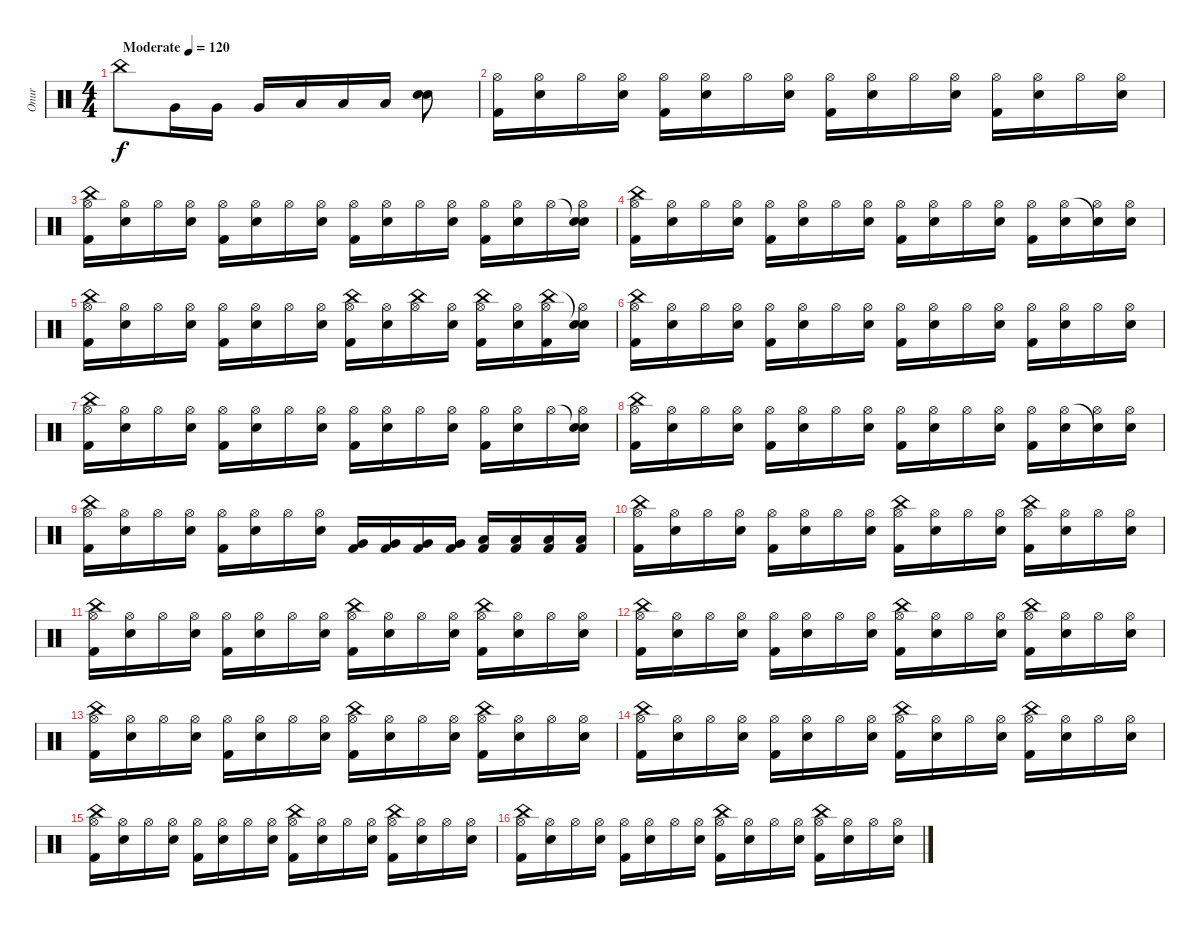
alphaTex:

\track ("Onur" "Onur") {instrument percussion}
\staff {score}
\articulation defaults
\ts (4 4)
\tempo (120 "Moderate")
\clef neutral
\ks c "China (hit)".8{dy f} "Very Low Tom (hit)".16 "Very Low Tom (hit)".16 "Very Low Tom (hit)".16 "Low Tom (hit)".16 "Low Tom (hit)".16 "Low Tom (hit)".16
("Snare (hit) 2" "Snare (hit)").8 |
("Hi-Hat (open)" "Kick (hit) 2").16 ("Hi-Hat (open)" "Snare (hit) 2").16 "Hi-Hat (open)".16 ("Hi-Hat (open)" "Snare (hit) 2").16 ("Hi-Hat (open)" "Kick (hit) 2").16 ("Hi-Hat (open)" "Snare (hit) 2").16 "Hi-Hat (open)".16 ("Hi-Hat (open)" "Snare (hit) 2").16 ("Hi-Hat (open)" "Kick (hit) 2").16 ("Hi-Hat (open)" "Snare (hit) 2").16 "Hi-Hat (open)".16 ("Hi-Hat (open)" "Snare (hit) 2").16 ("Hi-Hat (open)" "Kick (hit) 2").16 ("Hi-Hat (open)" "Snare (hit) 2").16 "Hi-Hat (open)".16 ("Hi-Hat (open)" "Snare (hit) 2").16 |
("China (hit)" "Hi-Hat (open)" "Kick (hit) 2").16 ("Hi-Hat (open)" "Snare (hit) 2").16 "Hi-Hat (open)".16 ("Hi-Hat (open)" "Snare (hit) 2").16 ("Hi-Hat (open)" "Kick (hit) 2").16 ("Hi-Hat (open)" "Snare (hit) 2").16 "Hi-Hat (open)".16 ("Hi-Hat (open)" "Snare (hit) 2").16 ("Hi-Hat (open)" "Kick (hit) 2").16 ("Hi-Hat (open)" "Snare (hit) 2").16 "Hi-Hat (open)".16 ("Hi-Hat (open)" "Snare (hit) 2").16 ("Hi-Hat (open)" "Kick (hit) 2").16 ("Hi-Hat (open)" "Snare (hit) 2").16 "Hi-Hat (open)".16 ("Snare (hit)"{t} "Hi-Hat (open)" "Snare (hit) 2").16 |
("China (hit)" "Hi-Hat (open)" "Kick (hit) 2").16 ("Hi-Hat (open)" "Snare (hit) 2").16 "Hi-Hat (open)".16 ("Hi-Hat (open)" "Snare (hit) 2").16 ("Hi-Hat (open)" "Kick (hit) 2").16 ("Hi-Hat (open)" "Snare (hit) 2").16 "Hi-Hat (open)".16 ("Hi-Hat (open)" "Snare (hit) 2").16 ("Hi-Hat (open)" "Kick (hit) 2").16 ("Hi-Hat (open)" "Snare (hit) 2").16 "Hi-Hat (open)".16 ("Hi-Hat (open)" "Snare (hit) 2").16 ("Hi-Hat (open)" "Kick (hit) 2").16 ("Hi-Hat (open)" "Snare (hit) 2").16 ("Snare (hit)"{t} "Hi-Hat (open)").16 ("Hi-Hat (open)" "Snare (hit) 2").16 |
("China (hit)" "Hi-Hat (open)" "Kick (hit) 2").16 ("Hi-Hat (open)" "Snare (hit) 2").16 "Hi-Hat (open)".16 ("Hi-Hat (open)" "Snare (hit) 2").16 ("Hi-Hat (open)" "Kick (hit) 2").16 ("Hi-Hat (open)" "Snare (hit) 2").16 "Hi-Hat (open)".16 ("Hi-Hat (open)" "Snare (hit) 2").16 ("China (hit)" "Hi-Hat (open)" "Kick (hit) 2").16 ("Hi-Hat (open)" "Snare (hit) 2").16 ("China (hit)" "Hi-Hat (open)").16 ("Hi-Hat (open)" "Snare (hit) 2").16 ("China (hit)" "Hi-Hat (open)" "Kick (hit) 2").16 ("Hi-Hat (open)" "Snare (hit) 2").16 ("China (hit)" "Hi-Hat (open)" "Kick (hit) 2").16 ("Snare (hit)"{t} "Hi-Hat (open)" "Snare (hit) 2").16 |
("China (hit)" "Hi-Hat (open)" "Kick (hit) 2").16 ("Hi-Hat (open)" "Snare (hit) 2").16 "Hi-Hat (open)".16 ("Hi-Hat (open)" "Snare (hit) 2").16 ("Hi-Hat (open)" "Kick (hit) 2").16 ("Hi-Hat (open)" "Snare (hit) 2").16 "Hi-Hat (open)".16 ("Hi-Hat (open)" "Snare (hit) 2").16 ("Hi-Hat (open)" "Kick (hit) 2").16 ("Hi-Hat (open)" "Snare (hit) 2").16 "Hi-Hat (open)".16 ("Hi-Hat (open)" "Snare (hit) 2").16 ("Hi-Hat (open)" "Kick (hit) 2").16 ("Hi-Hat (open)" "Snare (hit) 2").16 "Hi-Hat (open)".16 ("Hi-Hat (open)" "Snare (hit) 2").16 |
("China (hit)" "Hi-Hat (open)" "Kick (hit) 2").16 ("Hi-Hat (open)" "Snare (hit) 2").16 "Hi-Hat (open)".16 ("Hi-Hat (open)" "Snare (hit) 2").16 ("Hi-Hat (open)" "Kick (hit) 2").16 ("Hi-Hat (open)" "Snare (hit) 2").16 "Hi-Hat (open)".16 ("Hi-Hat (open)" "Snare (hit) 2").16 ("Hi-Hat (open)" "Kick (hit) 2").16 ("Hi-Hat (open)" "Snare (hit) 2").16 "Hi-Hat (open)".16 ("Hi-Hat (open)" "Snare (hit) 2").16 ("Hi-Hat (open)" "Kick (hit) 2").16 ("Hi-Hat (open)" "Snare (hit) 2").16 "Hi-Hat (open)".16 ("Snare (hit)"{t} "Hi-Hat (open)" "Snare (hit) 2").16 |
("China (hit)" "Hi-Hat (open)" "Kick (hit) 2").16 ("Hi-Hat (open)" "Snare (hit) 2").16 "Hi-Hat (open)".16 ("Hi-Hat (open)" "Snare (hit) 2").16 ("Hi-Hat (open)" "Kick (hit) 2").16 ("Hi-Hat (open)" "Snare (hit) 2").16 "Hi-Hat (open)".16 ("Hi-Hat (open)" "Snare (hit) 2").16 ("Hi-Hat (open)" "Kick (hit) 2").16 ("Hi-Hat (open)" "Snare (hit) 2").16 "Hi-Hat (open)".16 ("Hi-Hat (open)" "Snare (hit) 2").16 ("Hi-Hat (open)" "Kick (hit) 2").16 ("Hi-Hat (open)" "Snare (hit) 2").16 ("Snare (hit)"{t} "Hi-Hat (open)").16 ("Hi-Hat (open)" "Snare (hit) 2").16 |
("China (hit)" "Hi-Hat (open)" "Kick (hit) 2").16 ("Hi-Hat (open)" "Snare (hit) 2").16 "Hi-Hat (open)".16 ("Hi-Hat (open)" "Snare (hit) 2").16 ("Hi-Hat (open)" "Kick (hit) 2").16 ("Hi-Hat (open)" "Snare (hit) 2").16 "Hi-Hat (open)".16 ("Hi-Hat (open)" "Snare (hit) 2").16 ("Very Low Tom (hit)" "Kick (hit) 2").16 ("Very Low Tom (hit)" "Kick (hit) 2").16 ("Very Low Tom (hit)" "Kick (hit) 2").16 ("Very Low Tom (hit)" "Kick (hit) 2").16 ("Low Tom (hit)" "Kick (hit) 2").16 ("Low Tom (hit)" "Kick (hit) 2").16 ("Low Tom (hit)" "Kick (hit) 2").16 ("Low Tom (hit)" "Kick (hit) 2").16 |
("China (hit)" "Hi-Hat (open)" "Kick (hit) 2").16 ("Hi-Hat (open)" "Snare (hit) 2").16 "Hi-Hat (open)".16 ("Hi-Hat (open)" "Snare (hit) 2").16 ("Hi-Hat (open)" "Kick (hit) 2").16 ("Hi-Hat (open)" "Snare (hit) 2").16 "Hi-Hat (open)".16 ("Hi-Hat (open)" "Snare (hit) 2").16 ("China (hit)" "Hi-Hat (open)" "Kick (hit) 2").16 ("Hi-Hat (open)" "Snare (hit) 2").16 "Hi-Hat (open)".16 ("Hi-Hat (open)" "Snare (hit) 2").16 ("China (hit)" "Hi-Hat (open)" "Kick (hit) 2").16 ("Hi-Hat (open)" "Snare (hit) 2").16 "Hi-Hat (open)".16 ("Hi-Hat (open)" "Snare (hit) 2").16 |
("China (hit)" "Hi-Hat (open)" "Kick (hit) 2").16 ("Hi-Hat (open)" "Snare (hit) 2").16 "Hi-Hat (open)".16 ("Hi-Hat (open)" "Snare (hit) 2").16 ("Hi-Hat (open)" "Kick (hit) 2").16 ("Hi-Hat (open)" "Snare (hit) 2").16 "Hi-Hat (open)".16 ("Hi-Hat (open)" "Snare (hit) 2").16 ("China (hit)" "Hi-Hat (open)" "Kick (hit) 2").16 ("Hi-Hat (open)" "Snare (hit) 2").16 "Hi-Hat (open)".16 ("Hi-Hat (open)" "Snare (hit) 2").16 ("China (hit)" "Hi-Hat (open)" "Kick (hit) 2").16 ("Hi-Hat (open)" "Snare (hit) 2").16 "Hi-Hat (open)".16 ("Hi-Hat (open)" "Snare (hit) 2").16 |
("China (hit)" "Hi-Hat (open)" "Kick (hit) 2").16 ("Hi-Hat (open)" "Snare (hit) 2").16 "Hi-Hat (open)".16 ("Hi-Hat (open)" "Snare (hit) 2").16 ("Hi-Hat (open)" "Kick (hit) 2").16 ("Hi-Hat (open)" "Snare (hit) 2").16 "Hi-Hat (open)".16 ("Hi-Hat (open)" "Snare (hit) 2").16 ("China (hit)" "Hi-Hat (open)" "Kick (hit) 2").16 ("Hi-Hat (open)" "Snare (hit) 2").16 "Hi-Hat (open)".16 ("Hi-Hat (open)" "Snare (hit) 2").16 ("China (hit)" "Hi-Hat (open)" "Kick (hit) 2").16 ("Hi-Hat (open)" "Snare (hit) 2").16 "Hi-Hat (open)".16 ("Hi-Hat (open)" "Snare (hit) 2").16 |
("China (hit)" "Hi-Hat (open)" "Kick (hit) 2").16 ("Hi-Hat (open)" "Snare (hit) 2").16 "Hi-Hat (open)".16 ("Hi-Hat (open)" "Snare (hit) 2").16 ("Hi-Hat (open)" "Kick (hit) 2").16 ("Hi-Hat (open)" "Snare (hit) 2").16 "Hi-Hat (open)".16 ("Hi-Hat (open)" "Snare (hit) 2").16 ("China (hit)" "Hi-Hat (open)" "Kick (hit) 2").16 ("Hi-Hat (open)" "Snare (hit) 2").16 "Hi-Hat (open)".16 ("Hi-Hat (open)" "Snare (hit) 2").16 ("China (hit)" "Hi-Hat (open)" "Kick (hit) 2").16 ("Hi-Hat (open)" "Snare (hit) 2").16 "Hi-Hat (open)".16 ("Hi-Hat (open)" "Snare (hit) 2").16 |
("China (hit)" "Hi-Hat (open)" "Kick (hit) 2").16 ("Hi-Hat (open)" "Snare (hit) 2").16 "Hi-Hat (open)".16 ("Hi-Hat (open)" "Snare (hit) 2").16 ("Hi-Hat (open)" "Kick (hit) 2").16 ("Hi-Hat (open)" "Snare (hit) 2").16 "Hi-Hat (open)".16 ("Hi-Hat (open)" "Snare (hit) 2").16 ("China (hit)" "Hi-Hat (open)" "Kick (hit) 2").16 ("Hi-Hat (open)" "Snare (hit) 2").16 "Hi-Hat (open)".16 ("Hi-Hat (open)" "Snare (hit) 2").16 ("China (hit)" "Hi-Hat (open)" "Kick (hit) 2").16 ("Hi-Hat (open)" "Snare (hit) 2").16 "Hi-Hat (open)".16 ("Hi-Hat (open)" "Snare (hit) 2").16 |
("China (hit)" "Hi-Hat (open)" "Kick (hit) 2").16 ("Hi-Hat (open)" "Snare (hit) 2").16 "Hi-Hat (open)".16 ("Hi-Hat (open)" "Snare (hit) 2").16 ("Hi-Hat (open)" "Kick (hit) 2").16 ("Hi-Hat (open)" "Snare (hit) 2").16 "Hi-Hat (open)".16 ("Hi-Hat (open)" "Snare (hit) 2").16 ("China (hit)" "Hi-Hat (open)" "Kick (hit) 2").16 ("Hi-Hat (open)" "Snare (hit) 2").16 "Hi-Hat (open)".16 ("Hi-Hat (open)" "Snare (hit) 2").16 ("China (hit)" "Hi-Hat (open)" "Kick (hit) 2").16 ("Hi-Hat (open)" "Snare (hit) 2").16 "Hi-Hat (open)".16 ("Hi-Hat (open)" "Snare (hit) 2").16 |
("China (hit)" "Hi-Hat (open)" "Kick (hit) 2").16 ("Hi-Hat (open)" "Snare (hit) 2").16 "Hi-Hat (open)".16 ("Hi-Hat (open)" "Snare (hit) 2").16 ("Hi-Hat (open)" "Kick (hit) 2").16 ("Hi-Hat (open)" "Snare (hit) 2").16 "Hi-Hat (open)".16 ("Hi-Hat (open)" "Snare (hit) 2").16 ("China (hit)" "Hi-Hat (open)" "Kick (hit) 2").16 ("Hi-Hat (open)" "Snare (hit) 2").16 "Hi-Hat (open)".16 ("Hi-Hat (open)" "Snare (hit) 2").16 ("China (hit)" "Hi-Hat (open)" "Kick (hit) 2").16 ("Hi-Hat (open)" "Snare (hit) 2").16 "Hi-Hat (open)".16 ("Hi-Hat (open)" "Snare (hit) 2").16
